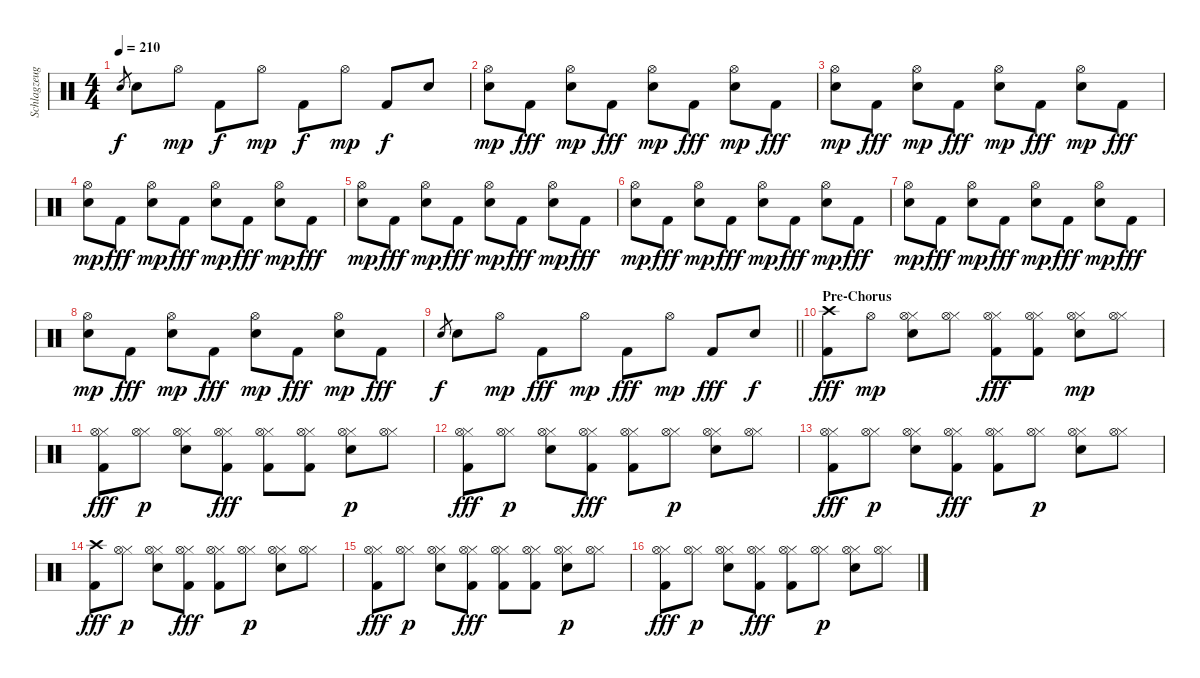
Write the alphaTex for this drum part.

\track ("Schlagzeug" "Schlagzeug") {instrument percussion}
\staff {score}
\articulation defaults
\ts (4 4)
\tempo 210
\clef neutral
\ks c "Snare (hit) 2".8{gr dy f} "Snare (hit) 2".8 "Hi-Hat (open)".8{dy mp} "Kick (hit) 2".8{dy f} "Hi-Hat (open)".8{dy mp} "Kick (hit) 2".8{dy f} "Hi-Hat (open)".8{dy mp} "Kick (hit) 2".8{dy f} "Snare (hit) 2".8
|
("Hi-Hat (open)" "Snare (hit) 2").8{dy mp} "Kick (hit) 2".8{dy fff} ("Hi-Hat (open)" "Snare (hit) 2").8{dy mp} "Kick (hit) 2".8{dy fff} ("Hi-Hat (open)" "Snare (hit) 2").8{dy mp} "Kick (hit) 2".8{dy fff} ("Hi-Hat (open)" "Snare (hit) 2").8{dy mp} "Kick (hit) 2".8{dy fff} |
("Hi-Hat (open)" "Snare (hit) 2").8{dy mp} "Kick (hit) 2".8{dy fff} ("Hi-Hat (open)" "Snare (hit) 2").8{dy mp} "Kick (hit) 2".8{dy fff} ("Hi-Hat (open)" "Snare (hit) 2").8{dy mp} "Kick (hit) 2".8{dy fff} ("Hi-Hat (open)" "Snare (hit) 2").8{dy mp} "Kick (hit) 2".8{dy fff} |
("Hi-Hat (open)" "Snare (hit) 2").8{dy mp} "Kick (hit) 2".8{dy fff} ("Hi-Hat (open)" "Snare (hit) 2").8{dy mp} "Kick (hit) 2".8{dy fff} ("Hi-Hat (open)" "Snare (hit) 2").8{dy mp} "Kick (hit) 2".8{dy fff} ("Hi-Hat (open)" "Snare (hit) 2").8{dy mp} "Kick (hit) 2".8{dy fff} |
("Hi-Hat (open)" "Snare (hit) 2").8{dy mp} "Kick (hit) 2".8{dy fff} ("Hi-Hat (open)" "Snare (hit) 2").8{dy mp} "Kick (hit) 2".8{dy fff} ("Hi-Hat (open)" "Snare (hit) 2").8{dy mp} "Kick (hit) 2".8{dy fff} ("Hi-Hat (open)" "Snare (hit) 2").8{dy mp} "Kick (hit) 2".8{dy fff} |
("Hi-Hat (open)" "Snare (hit) 2").8{dy mp} "Kick (hit) 2".8{dy fff} ("Hi-Hat (open)" "Snare (hit) 2").8{dy mp} "Kick (hit) 2".8{dy fff} ("Hi-Hat (open)" "Snare (hit) 2").8{dy mp} "Kick (hit) 2".8{dy fff} ("Hi-Hat (open)" "Snare (hit) 2").8{dy mp} "Kick (hit) 2".8{dy fff} |
("Hi-Hat (open)" "Snare (hit) 2").8{dy mp} "Kick (hit) 2".8{dy fff} ("Hi-Hat (open)" "Snare (hit) 2").8{dy mp} "Kick (hit) 2".8{dy fff} ("Hi-Hat (open)" "Snare (hit) 2").8{dy mp} "Kick (hit) 2".8{dy fff} ("Hi-Hat (open)" "Snare (hit) 2").8{dy mp} "Kick (hit) 2".8{dy fff} |
("Hi-Hat (open)" "Snare (hit) 2").8{dy mp} "Kick (hit) 2".8{dy fff} ("Hi-Hat (open)" "Snare (hit) 2").8{dy mp} "Kick (hit) 2".8{dy fff} ("Hi-Hat (open)" "Snare (hit) 2").8{dy mp} "Kick (hit) 2".8{dy fff} ("Hi-Hat (open)" "Snare (hit) 2").8{dy mp} "Kick (hit) 2".8{dy fff} |
\barLineRight lightlight "Snare (hit) 2".8{gr dy f} "Snare (hit) 2".8 "Hi-Hat (open)".8{dy mp} "Kick (hit) 2".8{dy fff} "Hi-Hat (open)".8{dy mp} "Kick (hit) 2".8{dy fff} "Hi-Hat (open)".8{dy mp} "Kick (hit) 2".8{dy fff} "Snare (hit) 2".8{dy f}
|
\section ("" "Pre-Chorus")
("Crash high (hit)" "Kick (hit) 2").8{dy fff} "Hi-Hat (open)".8{dy mp} ("Hi-Hat (closed)" "Hi-Hat (open)" "Snare (hit) 2").8 ("Hi-Hat (closed)" "Hi-Hat (open)").8 ("Hi-Hat (closed)" "Hi-Hat (open)" "Kick (hit) 2").8{dy fff} ("Hi-Hat (closed)" "Hi-Hat (open)" "Kick (hit) 2").8 ("Hi-Hat (closed)" "Hi-Hat (open)" "Snare (hit) 2").8{dy mp} ("Hi-Hat (closed)" "Hi-Hat (open)").8 |
("Hi-Hat (closed)" "Hi-Hat (open)" "Kick (hit) 2").8{dy fff} ("Hi-Hat (closed)" "Hi-Hat (open)").8{dy p} ("Hi-Hat (closed)" "Hi-Hat (open)" "Snare (hit) 2").8 ("Hi-Hat (closed)" "Hi-Hat (open)" "Kick (hit) 2").8{dy fff} ("Hi-Hat (closed)" "Hi-Hat (open)" "Kick (hit) 2").8 ("Hi-Hat (closed)" "Hi-Hat (open)" "Kick (hit) 2").8 ("Hi-Hat (closed)" "Hi-Hat (open)" "Snare (hit) 2").8{dy p} ("Hi-Hat (closed)" "Hi-Hat (open)").8 |
("Hi-Hat (closed)" "Hi-Hat (open)" "Kick (hit) 2").8{dy fff} ("Hi-Hat (closed)" "Hi-Hat (open)").8{dy p} ("Hi-Hat (closed)" "Hi-Hat (open)" "Snare (hit) 2").8 ("Hi-Hat (closed)" "Hi-Hat (open)" "Kick (hit) 2").8{dy fff} ("Hi-Hat (closed)" "Hi-Hat (open)" "Kick (hit) 2").8 ("Hi-Hat (closed)" "Hi-Hat (open)").8{dy p} ("Hi-Hat (closed)" "Hi-Hat (open)" "Snare (hit) 2").8 ("Hi-Hat (closed)" "Hi-Hat (open)").8 |
("Hi-Hat (closed)" "Hi-Hat (open)" "Kick (hit) 2").8{dy fff} ("Hi-Hat (closed)" "Hi-Hat (open)").8{dy p} ("Hi-Hat (closed)" "Hi-Hat (open)" "Snare (hit) 2").8 ("Hi-Hat (closed)" "Hi-Hat (open)" "Kick (hit) 2").8{dy fff} ("Hi-Hat (closed)" "Hi-Hat (open)" "Kick (hit) 2").8 ("Hi-Hat (closed)" "Hi-Hat (open)").8{dy p} ("Hi-Hat (closed)" "Hi-Hat (open)" "Snare (hit) 2").8 ("Hi-Hat (closed)" "Hi-Hat (open)").8 |
("Crash high (hit)" "Kick (hit) 2").8{dy fff} ("Hi-Hat (closed)" "Hi-Hat (open)").8{dy p} ("Hi-Hat (closed)" "Hi-Hat (open)" "Snare (hit) 2").8 ("Hi-Hat (closed)" "Hi-Hat (open)" "Kick (hit) 2").8{dy fff} ("Hi-Hat (closed)" "Hi-Hat (open)" "Kick (hit) 2").8 ("Hi-Hat (closed)" "Hi-Hat (open)").8{dy p} ("Hi-Hat (closed)" "Hi-Hat (open)" "Snare (hit) 2").8 ("Hi-Hat (closed)" "Hi-Hat (open)").8 |
("Hi-Hat (closed)" "Hi-Hat (open)" "Kick (hit) 2").8{dy fff} ("Hi-Hat (closed)" "Hi-Hat (open)").8{dy p} ("Hi-Hat (closed)" "Hi-Hat (open)" "Snare (hit) 2").8 ("Hi-Hat (closed)" "Hi-Hat (open)" "Kick (hit) 2").8{dy fff} ("Hi-Hat (closed)" "Hi-Hat (open)" "Kick (hit) 2").8 ("Hi-Hat (closed)" "Hi-Hat (open)" "Kick (hit) 2").8 ("Hi-Hat (closed)" "Hi-Hat (open)" "Snare (hit) 2").8{dy p} ("Hi-Hat (closed)" "Hi-Hat (open)").8 |
("Hi-Hat (closed)" "Hi-Hat (open)" "Kick (hit) 2").8{dy fff} ("Hi-Hat (closed)" "Hi-Hat (open)").8{dy p} ("Hi-Hat (closed)" "Hi-Hat (open)" "Snare (hit) 2").8 ("Hi-Hat (closed)" "Hi-Hat (open)" "Kick (hit) 2").8{dy fff} ("Hi-Hat (closed)" "Hi-Hat (open)" "Kick (hit) 2").8 ("Hi-Hat (closed)" "Hi-Hat (open)").8{dy p} ("Hi-Hat (closed)" "Hi-Hat (open)" "Snare (hit) 2").8 ("Hi-Hat (closed)" "Hi-Hat (open)").8
